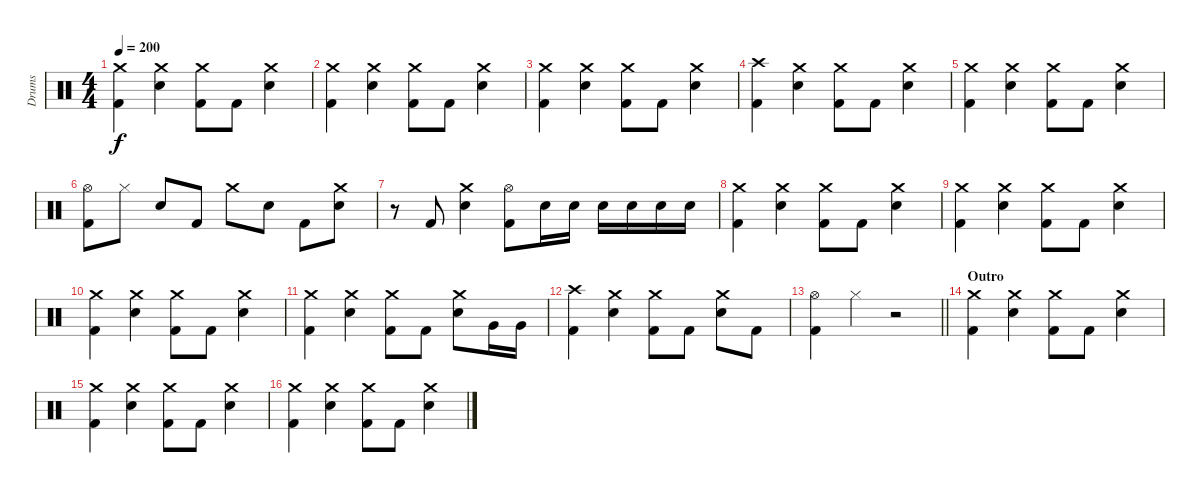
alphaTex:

\track ("Drums" "Drums") {instrument percussion}
\staff {score}
\articulation defaults
\ts (4 4)
\tempo 200
\clef neutral
\ks c
("Crash medium (hit)" "Kick (hit) 2").4{dy f} ("Crash medium (hit)" "Snare (hit) 2").4 ("Crash medium (hit)" "Kick (hit) 2").8 "Kick (hit) 2".8 ("Crash medium (hit)" "Snare (hit) 2").4 |
("Crash medium (hit)" "Kick (hit) 2").4 ("Crash medium (hit)" "Snare (hit) 2").4 ("Crash medium (hit)" "Kick (hit) 2").8 "Kick (hit) 2".8 ("Crash medium (hit)" "Snare (hit) 2").4 |
("Crash medium (hit)" "Kick (hit) 2").4 ("Crash medium (hit)" "Snare (hit) 2").4 ("Crash medium (hit)" "Kick (hit) 2").8 "Kick (hit) 2".8 ("Crash medium (hit)" "Snare (hit) 2").4 |
("Crash high (hit)" "Kick (hit) 2").4 ("Crash medium (hit)" "Snare (hit) 2").4 ("Crash medium (hit)" "Kick (hit) 2").8 "Kick (hit) 2".8 ("Crash medium (hit)" "Snare (hit) 2").4 |
("Crash medium (hit)" "Kick (hit) 2").4 ("Crash medium (hit)" "Snare (hit) 2").4 ("Crash medium (hit)" "Kick (hit) 2").8 "Kick (hit) 2".8 ("Crash medium (hit)" "Snare (hit) 2").4 |
("Hi-Hat (open)" "Kick (hit) 2").8 "Hi-Hat (closed)".8 "Snare (hit) 2".8 "Kick (hit) 2".8 "Crash medium (hit)".8 "Snare (hit) 2".8 "Kick (hit) 2".8 ("Crash medium (hit)" "Snare (hit) 2").8 |
r.8 "Kick (hit) 2".8 ("Crash medium (hit)" "Snare (hit) 2").4 ("Hi-Hat (open)" "Kick (hit) 2").8 "Snare (hit) 2".16 "Snare (hit) 2".16 "Snare (hit) 2".16 "Snare (hit) 2".16 "Snare (hit) 2".16 "Snare (hit) 2".16 |
("Crash medium (hit)" "Kick (hit) 2").4 ("Crash medium (hit)" "Snare (hit) 2").4 ("Crash medium (hit)" "Kick (hit) 2").8 "Kick (hit) 2".8 ("Crash medium (hit)" "Snare (hit) 2").4 |
("Crash medium (hit)" "Kick (hit) 2").4 ("Crash medium (hit)" "Snare (hit) 2").4 ("Crash medium (hit)" "Kick (hit) 2").8 "Kick (hit) 2".8 ("Crash medium (hit)" "Snare (hit) 2").4 |
("Crash medium (hit)" "Kick (hit) 2").4 ("Crash medium (hit)" "Snare (hit) 2").4 ("Crash medium (hit)" "Kick (hit) 2").8 "Kick (hit) 2".8 ("Crash medium (hit)" "Snare (hit) 2").4 |
("Crash medium (hit)" "Kick (hit) 2").4 ("Crash medium (hit)" "Snare (hit) 2").4 ("Crash medium (hit)" "Kick (hit) 2").8 "Kick (hit) 2".8 ("Crash medium (hit)" "Snare (hit) 2").8 "Very Low Tom (hit)".16 "Very Low Tom (hit)".16 |
("Crash high (hit)" "Kick (hit) 2").4 ("Crash medium (hit)" "Snare (hit) 2").4 ("Crash medium (hit)" "Kick (hit) 2").8 "Kick (hit) 2".8 ("Crash medium (hit)" "Snare (hit) 2").8 "Kick (hit) 2".8 |
\barLineRight lightlight
("Hi-Hat (open)" "Kick (hit) 2").4 "Hi-Hat (closed)".4 r.2 |
\section ("" "Outro")
("Crash medium (hit)" "Kick (hit) 2").4 ("Crash medium (hit)" "Snare (hit) 2").4 ("Crash medium (hit)" "Kick (hit) 2").8 "Kick (hit) 2".8 ("Crash medium (hit)" "Snare (hit) 2").4 |
("Crash medium (hit)" "Kick (hit) 2").4 ("Crash medium (hit)" "Snare (hit) 2").4 ("Crash medium (hit)" "Kick (hit) 2").8 "Kick (hit) 2".8 ("Crash medium (hit)" "Snare (hit) 2").4 |
("Crash medium (hit)" "Kick (hit) 2").4 ("Crash medium (hit)" "Snare (hit) 2").4 ("Crash medium (hit)" "Kick (hit) 2").8 "Kick (hit) 2".8 ("Crash medium (hit)" "Snare (hit) 2").4
